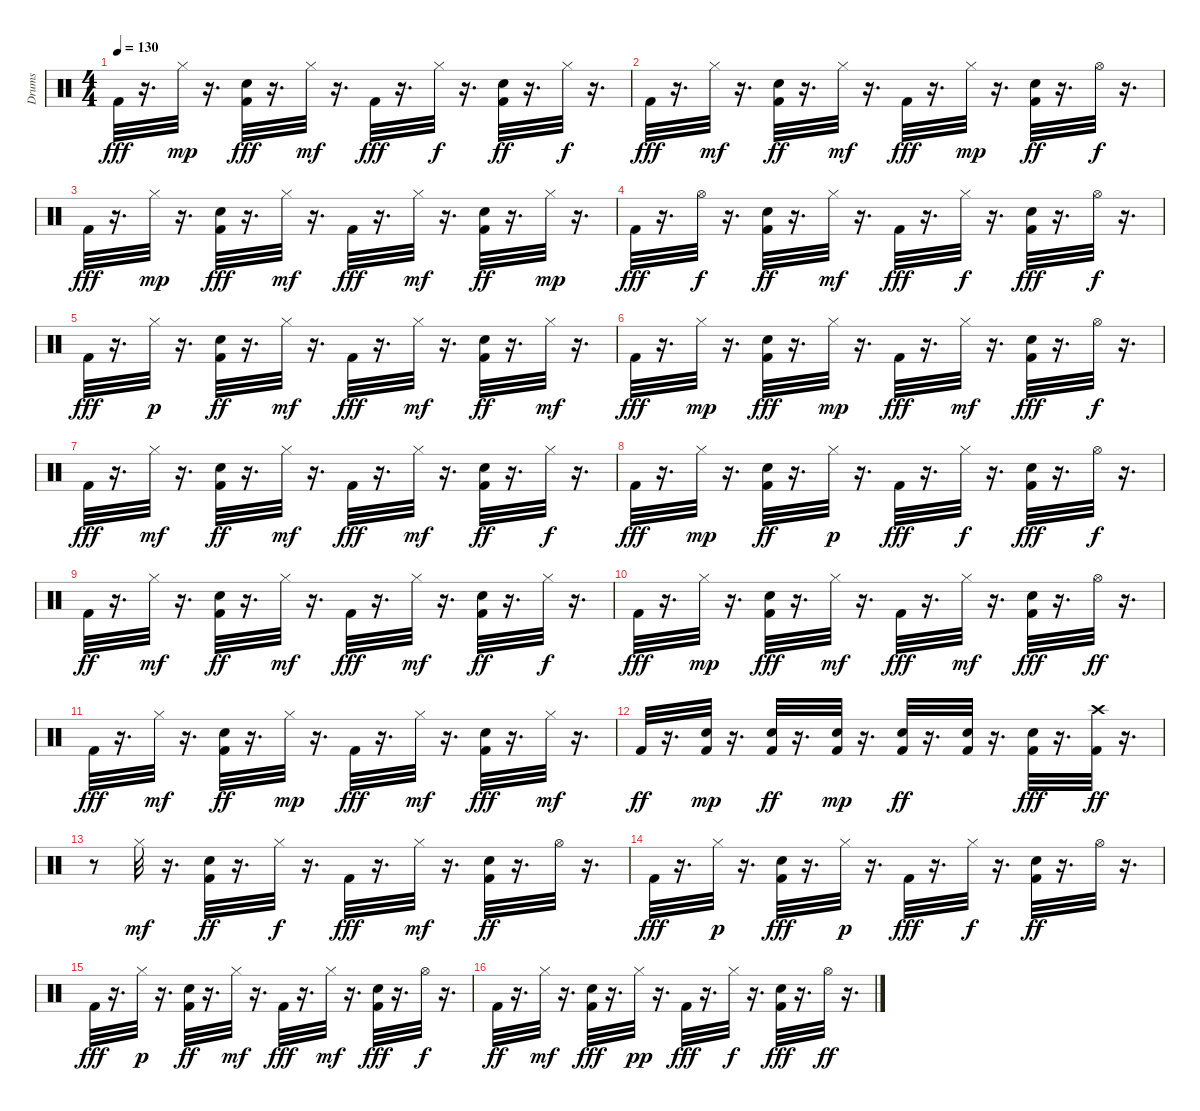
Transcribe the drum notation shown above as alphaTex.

\track ("Drums               " "Drums     ") {instrument percussion}
\staff {score}
\articulation defaults
\ts (4 4)
\tempo 130
\clef neutral
\ks c "Kick (hit) 2".32{dy fff}
r.16{d} "Hi-Hat (closed)".32{dy mp} r.16{d} ("Kick (hit) 2" "Snare (hit) 2").32{dy fff} r.16{d} "Hi-Hat (closed)".32{dy mf} r.16{d} "Kick (hit) 2".32{dy fff} r.16{d} "Hi-Hat (closed)".32{dy f} r.16{d} ("Kick (hit) 2" "Snare (hit) 2").32{dy ff} r.16{d} "Hi-Hat (closed)".32{dy f} r.16{d} |
"Kick (hit) 2".32{dy fff} r.16{d} "Hi-Hat (closed)".32{dy mf} r.16{d} ("Kick (hit) 2" "Snare (hit) 2").32{dy ff} r.16{d} "Hi-Hat (closed)".32{dy mf} r.16{d} "Kick (hit) 2".32{dy fff} r.16{d} "Hi-Hat (closed)".32{dy mp} r.16{d} ("Kick (hit) 2" "Snare (hit) 2").32{dy ff} r.16{d} "Hi-Hat (open)".32{dy f} r.16{d} |
"Kick (hit) 2".32{dy fff} r.16{d} "Hi-Hat (closed)".32{dy mp} r.16{d} ("Kick (hit) 2" "Snare (hit) 2").32{dy fff} r.16{d} "Hi-Hat (closed)".32{dy mf} r.16{d} "Kick (hit) 2".32{dy fff} r.16{d} "Hi-Hat (closed)".32{dy mf} r.16{d} ("Kick (hit) 2" "Snare (hit) 2").32{dy ff} r.16{d} "Hi-Hat (closed)".32{dy mp} r.16{d} |
"Kick (hit) 2".32{dy fff} r.16{d} "Hi-Hat (open)".32{dy f} r.16{d} ("Kick (hit) 2" "Snare (hit) 2").32{dy ff} r.16{d} "Hi-Hat (closed)".32{dy mf} r.16{d} "Kick (hit) 2".32{dy fff} r.16{d} "Hi-Hat (closed)".32{dy f} r.16{d} ("Kick (hit) 2" "Snare (hit) 2").32{dy fff} r.16{d} "Hi-Hat (open)".32{dy f} r.16{d} |
"Kick (hit) 2".32{dy fff} r.16{d} "Hi-Hat (closed)".32{dy p} r.16{d} ("Kick (hit) 2" "Snare (hit) 2").32{dy ff} r.16{d} "Hi-Hat (closed)".32{dy mf} r.16{d} "Kick (hit) 2".32{dy fff} r.16{d} "Hi-Hat (closed)".32{dy mf} r.16{d} ("Kick (hit) 2" "Snare (hit) 2").32{dy ff} r.16{d} "Hi-Hat (closed)".32{dy mf} r.16{d} |
"Kick (hit) 2".32{dy fff} r.16{d} "Hi-Hat (closed)".32{dy mp} r.16{d} ("Kick (hit) 2" "Snare (hit) 2").32{dy fff} r.16{d} "Hi-Hat (closed)".32{dy mp} r.16{d} "Kick (hit) 2".32{dy fff} r.16{d} "Hi-Hat (closed)".32{dy mf} r.16{d} ("Kick (hit) 2" "Snare (hit) 2").32{dy fff} r.16{d} "Hi-Hat (open)".32{dy f} r.16{d} |
"Kick (hit) 2".32{dy fff} r.16{d} "Hi-Hat (closed)".32{dy mf} r.16{d} ("Kick (hit) 2" "Snare (hit) 2").32{dy ff} r.16{d} "Hi-Hat (closed)".32{dy mf} r.16{d} "Kick (hit) 2".32{dy fff} r.16{d} "Hi-Hat (closed)".32{dy mf} r.16{d} ("Kick (hit) 2" "Snare (hit) 2").32{dy ff} r.16{d} "Hi-Hat (closed)".32{dy f} r.16{d} |
"Kick (hit) 2".32{dy fff} r.16{d} "Hi-Hat (closed)".32{dy mp} r.16{d} ("Kick (hit) 2" "Snare (hit) 2").32{dy ff} r.16{d} "Hi-Hat (closed)".32{dy p} r.16{d} "Kick (hit) 2".32{dy fff} r.16{d} "Hi-Hat (closed)".32{dy f} r.16{d} ("Kick (hit) 2" "Snare (hit) 2").32{dy fff} r.16{d} "Hi-Hat (open)".32{dy f} r.16{d} |
"Kick (hit) 2".32{dy ff} r.16{d} "Hi-Hat (closed)".32{dy mf} r.16{d} ("Kick (hit) 2" "Snare (hit) 2").32{dy ff} r.16{d} "Hi-Hat (closed)".32{dy mf} r.16{d} "Kick (hit) 2".32{dy fff} r.16{d} "Hi-Hat (closed)".32{dy mf} r.16{d} ("Kick (hit) 2" "Snare (hit) 2").32{dy ff} r.16{d} "Hi-Hat (closed)".32{dy f} r.16{d} |
"Kick (hit) 2".32{dy fff} r.16{d} "Hi-Hat (closed)".32{dy mp} r.16{d} ("Kick (hit) 2" "Snare (hit) 2").32{dy fff} r.16{d} "Hi-Hat (closed)".32{dy mf} r.16{d} "Kick (hit) 2".32{dy fff} r.16{d} "Hi-Hat (closed)".32{dy mf} r.16{d} ("Kick (hit) 2" "Snare (hit) 2").32{dy fff} r.16{d} "Hi-Hat (open)".32{dy ff} r.16{d} |
"Kick (hit) 2".32{dy fff} r.16{d} "Hi-Hat (closed)".32{dy mf} r.16{d} ("Kick (hit) 2" "Snare (hit) 2").32{dy ff} r.16{d} "Hi-Hat (closed)".32{dy mp} r.16{d} "Kick (hit) 2".32{dy fff} r.16{d} "Hi-Hat (closed)".32{dy mf} r.16{d} ("Kick (hit) 2" "Snare (hit) 2").32{dy fff} r.16{d} "Hi-Hat (closed)".32{dy mf} r.16{d} |
"Kick (hit) 2".32{dy ff} r.16{d} ("Kick (hit) 2" "Snare (hit) 2").32{dy mp} r.16{d} ("Kick (hit) 2" "Snare (hit) 2").32{dy ff} r.16{d} ("Kick (hit) 2" "Snare (hit) 2").32{dy mp} r.16{d} ("Kick (hit) 2" "Snare (hit) 2").32{dy ff} r.16{d} ("Kick (hit) 2" "Snare (hit) 2").32 r.16{d} ("Kick (hit) 2" "Snare (hit) 2").32{dy fff} r.16{d} ("Kick (hit) 2" "Crash high (hit)").32{dy ff} r.16{d} |
r.8 "Hi-Hat (closed)".32{dy mf} r.16{d} ("Kick (hit) 2" "Snare (hit) 2").32{dy ff} r.16{d} "Hi-Hat (closed)".32{dy f} r.16{d} "Kick (hit) 2".32{dy fff} r.16{d} "Hi-Hat (closed)".32{dy mf} r.16{d} ("Kick (hit) 2" "Snare (hit) 2").32{dy ff} r.16{d} "Hi-Hat (open)".32 r.16{d} |
"Kick (hit) 2".32{dy fff} r.16{d} "Hi-Hat (closed)".32{dy p} r.16{d} ("Kick (hit) 2" "Snare (hit) 2").32{dy fff} r.16{d} "Hi-Hat (closed)".32{dy p} r.16{d} "Kick (hit) 2".32{dy fff} r.16{d} "Hi-Hat (closed)".32{dy f} r.16{d} ("Kick (hit) 2" "Snare (hit) 2").32{dy ff} r.16{d} "Hi-Hat (open)".32 r.16{d} |
"Kick (hit) 2".32{dy fff} r.16{d} "Hi-Hat (closed)".32{dy p} r.16{d} ("Kick (hit) 2" "Snare (hit) 2").32{dy ff} r.16{d} "Hi-Hat (closed)".32{dy mf} r.16{d} "Kick (hit) 2".32{dy fff} r.16{d} "Hi-Hat (closed)".32{dy mf} r.16{d} ("Kick (hit) 2" "Snare (hit) 2").32{dy fff} r.16{d} "Hi-Hat (open)".32{dy f} r.16{d} |
"Kick (hit) 2".32{dy ff} r.16{d} "Hi-Hat (closed)".32{dy mf} r.16{d} ("Kick (hit) 2" "Snare (hit) 2").32{dy fff} r.16{d} "Hi-Hat (closed)".32{dy pp} r.16{d} "Kick (hit) 2".32{dy fff} r.16{d} "Hi-Hat (closed)".32{dy f} r.16{d} ("Kick (hit) 2" "Snare (hit) 2").32{dy fff} r.16{d} "Hi-Hat (open)".32{dy ff} r.16{d}
